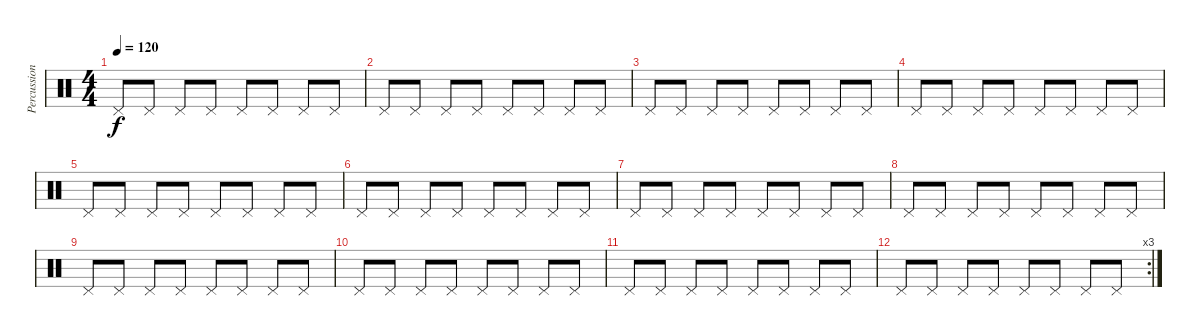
\track ("Percussion" "Percussion") {instrument percussion}
\staff {score}
\articulation defaults
\ts (4 4)
\tempo 120
\clef neutral
\ks c "Pedal Hi-Hat (hit)".8{dy f} "Pedal Hi-Hat (hit)".8 "Pedal Hi-Hat (hit)".8 "Pedal Hi-Hat (hit)".8 "Pedal Hi-Hat (hit)".8 "Pedal Hi-Hat (hit)".8 "Pedal Hi-Hat (hit)".8 "Pedal Hi-Hat (hit)".8
|
"Pedal Hi-Hat (hit)".8 "Pedal Hi-Hat (hit)".8 "Pedal Hi-Hat (hit)".8 "Pedal Hi-Hat (hit)".8 "Pedal Hi-Hat (hit)".8 "Pedal Hi-Hat (hit)".8 "Pedal Hi-Hat (hit)".8 "Pedal Hi-Hat (hit)".8 |
"Pedal Hi-Hat (hit)".8 "Pedal Hi-Hat (hit)".8 "Pedal Hi-Hat (hit)".8 "Pedal Hi-Hat (hit)".8 "Pedal Hi-Hat (hit)".8 "Pedal Hi-Hat (hit)".8 "Pedal Hi-Hat (hit)".8 "Pedal Hi-Hat (hit)".8 |
"Pedal Hi-Hat (hit)".8 "Pedal Hi-Hat (hit)".8 "Pedal Hi-Hat (hit)".8 "Pedal Hi-Hat (hit)".8 "Pedal Hi-Hat (hit)".8 "Pedal Hi-Hat (hit)".8 "Pedal Hi-Hat (hit)".8 "Pedal Hi-Hat (hit)".8 |
"Pedal Hi-Hat (hit)".8 "Pedal Hi-Hat (hit)".8 "Pedal Hi-Hat (hit)".8 "Pedal Hi-Hat (hit)".8 "Pedal Hi-Hat (hit)".8 "Pedal Hi-Hat (hit)".8 "Pedal Hi-Hat (hit)".8 "Pedal Hi-Hat (hit)".8 |
"Pedal Hi-Hat (hit)".8 "Pedal Hi-Hat (hit)".8 "Pedal Hi-Hat (hit)".8 "Pedal Hi-Hat (hit)".8 "Pedal Hi-Hat (hit)".8 "Pedal Hi-Hat (hit)".8 "Pedal Hi-Hat (hit)".8 "Pedal Hi-Hat (hit)".8 |
"Pedal Hi-Hat (hit)".8 "Pedal Hi-Hat (hit)".8 "Pedal Hi-Hat (hit)".8 "Pedal Hi-Hat (hit)".8 "Pedal Hi-Hat (hit)".8 "Pedal Hi-Hat (hit)".8 "Pedal Hi-Hat (hit)".8 "Pedal Hi-Hat (hit)".8 |
"Pedal Hi-Hat (hit)".8 "Pedal Hi-Hat (hit)".8 "Pedal Hi-Hat (hit)".8 "Pedal Hi-Hat (hit)".8 "Pedal Hi-Hat (hit)".8 "Pedal Hi-Hat (hit)".8 "Pedal Hi-Hat (hit)".8 "Pedal Hi-Hat (hit)".8 |
"Pedal Hi-Hat (hit)".8 "Pedal Hi-Hat (hit)".8 "Pedal Hi-Hat (hit)".8 "Pedal Hi-Hat (hit)".8 "Pedal Hi-Hat (hit)".8 "Pedal Hi-Hat (hit)".8 "Pedal Hi-Hat (hit)".8 "Pedal Hi-Hat (hit)".8 |
"Pedal Hi-Hat (hit)".8 "Pedal Hi-Hat (hit)".8 "Pedal Hi-Hat (hit)".8 "Pedal Hi-Hat (hit)".8 "Pedal Hi-Hat (hit)".8 "Pedal Hi-Hat (hit)".8 "Pedal Hi-Hat (hit)".8 "Pedal Hi-Hat (hit)".8 |
"Pedal Hi-Hat (hit)".8 "Pedal Hi-Hat (hit)".8 "Pedal Hi-Hat (hit)".8 "Pedal Hi-Hat (hit)".8 "Pedal Hi-Hat (hit)".8 "Pedal Hi-Hat (hit)".8 "Pedal Hi-Hat (hit)".8 "Pedal Hi-Hat (hit)".8 |
\rc 3 "Pedal Hi-Hat (hit)".8 "Pedal Hi-Hat (hit)".8 "Pedal Hi-Hat (hit)".8 "Pedal Hi-Hat (hit)".8 "Pedal Hi-Hat (hit)".8 "Pedal Hi-Hat (hit)".8 "Pedal Hi-Hat (hit)".8 "Pedal Hi-Hat (hit)".8
